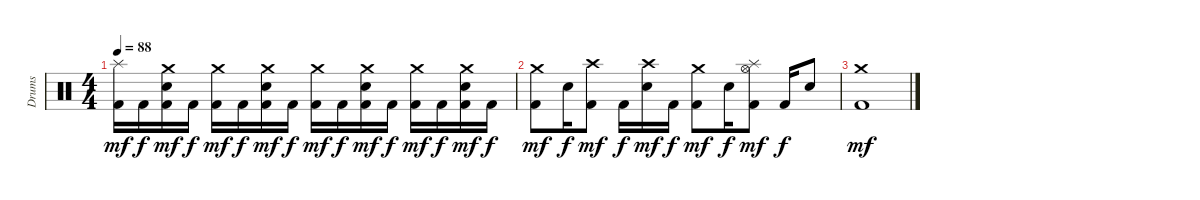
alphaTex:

\track ("Drums" "Drums") {instrument percussion}
\staff {score}
\articulation defaults
\ts (4 4)
\tempo 88
\clef neutral
\ks c
("Splash (hit)" "Kick (hit) 2").16{dy mf} "Kick (hit) 2".16{dy f} ("Crash medium (hit)" "Electric Snare (hit)" "Kick (hit) 2").16{dy mf} "Kick (hit) 2".16{dy f} ("Crash medium (hit)" "Kick (hit) 2").16{dy mf} "Kick (hit) 2".16{dy f} ("Crash medium (hit)" "Electric Snare (hit)" "Kick (hit) 2").16{dy mf} "Kick (hit) 2".16{dy f} ("Crash medium (hit)" "Kick (hit) 2").16{dy mf} "Kick (hit) 2".16{dy f} ("Crash medium (hit)" "Electric Snare (hit)" "Kick (hit) 2").16{dy mf} "Kick (hit) 2".16{dy f} ("Crash medium (hit)" "Kick (hit) 2").16{dy mf} "Kick (hit) 2".16{dy f} ("Crash medium (hit)" "Electric Snare (hit)" "Kick (hit) 2").16{dy mf} "Kick (hit) 2".16{dy f} |
("Crash medium (hit)" "Kick (hit) 2").8{dy mf} "Electric Snare (hit)".16{dy f} ("Crash high (hit)" "Kick (hit) 2").8{dy mf} "Kick (hit) 2".16{dy f} ("Crash high (hit)" "Electric Snare (hit)").16{dy mf} "Kick (hit) 2".16{dy f} ("Crash medium (hit)" "Kick (hit) 2").8{dy mf} "Electric Snare (hit)".16{dy f} ("Hi-Hat (open)" "Splash (hit)" "Kick (hit) 2").8{dy mf} "Kick (hit) 2".16{dy f} "Electric Snare (hit)".8 |
("Crash medium (hit)" "Kick (hit) 2").1{dy mf}
